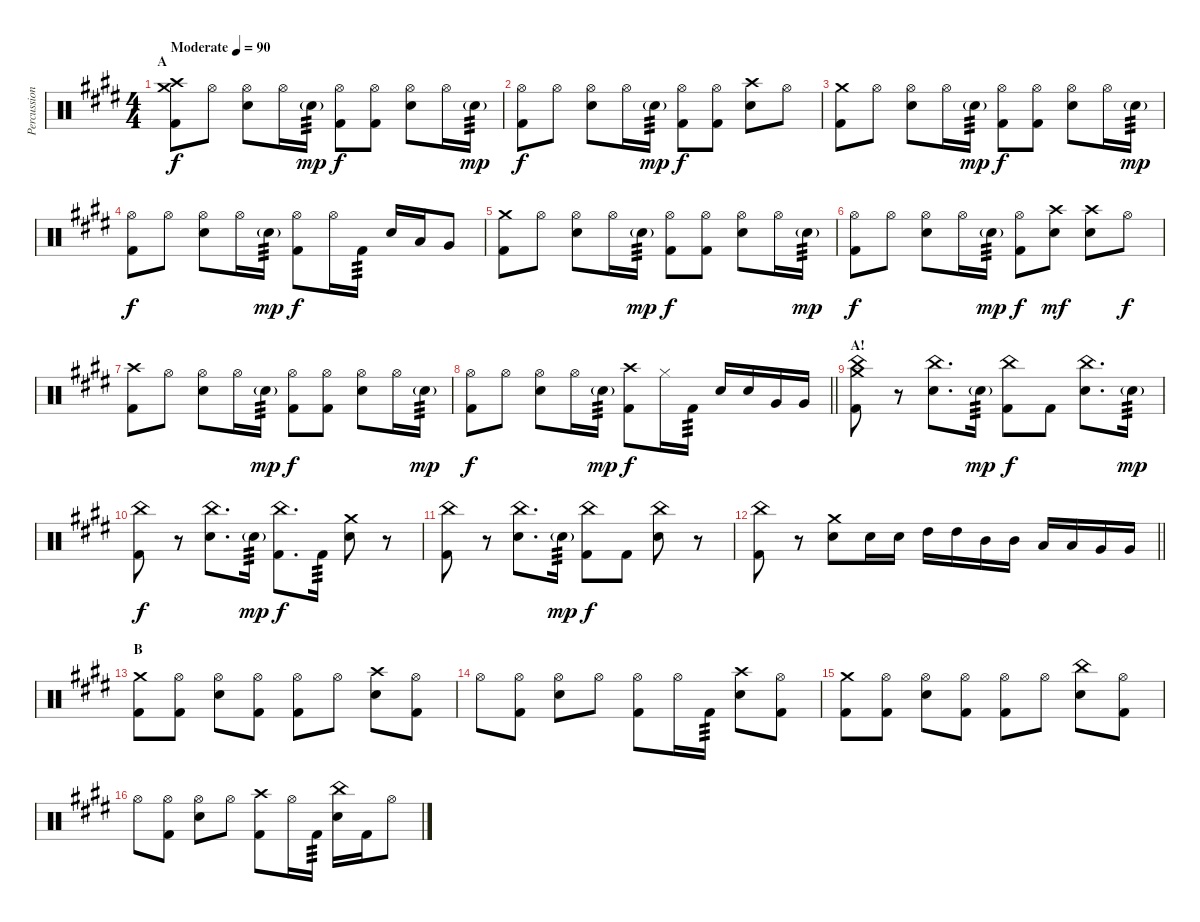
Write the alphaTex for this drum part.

\track ("Percussion" "Percussion") {instrument percussion}
\staff {score}
\articulation defaults
\ts (4 4)
\section ("" "A")
\tempo (90 "Moderate")
\clef neutral
\ks c#minor
("Crash medium (hit)" "Crash high (hit)" "Kick (hit) 2").8{dy f} "Hi-Hat (open)".8 ("Hi-Hat (open)" "Snare (hit) 2").8 "Hi-Hat (open)".16 "Snare (hit) 2"{g}.16{tp 3 dy mp} ("Hi-Hat (open)" "Kick (hit) 2").8{dy f} ("Hi-Hat (open)" "Kick (hit) 2").8 ("Hi-Hat (open)" "Snare (hit) 2").8 "Hi-Hat (open)".16 "Snare (hit) 2"{g}.16{tp 3 dy mp} |
("Hi-Hat (open)" "Kick (hit) 2").8{dy f} "Hi-Hat (open)".8 ("Hi-Hat (open)" "Snare (hit) 2").8 "Hi-Hat (open)".16 "Snare (hit) 2"{g}.16{tp 3 dy mp} ("Hi-Hat (open)" "Kick (hit) 2").8{dy f} ("Hi-Hat (open)" "Kick (hit) 2").8 ("Crash high (hit)" "Snare (hit) 2").8 "Hi-Hat (open)".8 |
("Crash medium (hit)" "Kick (hit) 2").8 "Hi-Hat (open)".8 ("Hi-Hat (open)" "Snare (hit) 2").8 "Hi-Hat (open)".16 "Snare (hit) 2"{g}.16{tp 3 dy mp} ("Hi-Hat (open)" "Kick (hit) 2").8{dy f} ("Hi-Hat (open)" "Kick (hit) 2").8 ("Hi-Hat (open)" "Snare (hit) 2").8 "Hi-Hat (open)".16 "Snare (hit) 2"{g}.16{tp 3 dy mp} |
("Hi-Hat (open)" "Kick (hit) 2").8{dy f} "Hi-Hat (open)".8 ("Hi-Hat (open)" "Snare (hit) 2").8 "Hi-Hat (open)".16 "Snare (hit) 2"{g}.16{tp 3 dy mp} ("Hi-Hat (open)" "Kick (hit) 2").8{dy f} "Hi-Hat (open)".16 "Kick (hit) 2".16{tp 3} "Snare (hit) 2".16 "Low Tom (hit)".16 "Very Low Tom (hit)".8 |
("Crash medium (hit)" "Kick (hit) 2").8 "Hi-Hat (open)".8 ("Hi-Hat (open)" "Snare (hit) 2").8 "Hi-Hat (open)".16 "Snare (hit) 2"{g}.16{tp 3 dy mp} ("Hi-Hat (open)" "Kick (hit) 2").8{dy f} ("Hi-Hat (open)" "Kick (hit) 2").8 ("Hi-Hat (open)" "Snare (hit) 2").8 "Hi-Hat (open)".16 "Snare (hit) 2"{g}.16{tp 3 dy mp} |
("Hi-Hat (open)" "Kick (hit) 2").8{dy f} "Hi-Hat (open)".8 ("Hi-Hat (open)" "Snare (hit) 2").8 "Hi-Hat (open)".16 "Snare (hit) 2"{g}.16{tp 3 dy mp} ("Hi-Hat (open)" "Kick (hit) 2").8{dy f} ("Crash high (hit)" "Snare (hit) 2").8{dy mf} ("Crash high (hit)" "Snare (hit) 2").8 "Hi-Hat (open)".8{dy f} |
("Crash high (hit)" "Kick (hit) 2").8 "Hi-Hat (open)".8 ("Hi-Hat (open)" "Snare (hit) 2").8 "Hi-Hat (open)".16 "Snare (hit) 2"{g}.16{tp 3 dy mp} ("Hi-Hat (open)" "Kick (hit) 2").8{dy f} ("Hi-Hat (open)" "Kick (hit) 2").8 ("Hi-Hat (open)" "Snare (hit) 2").8 "Hi-Hat (open)".16 "Snare (hit) 2"{g}.16{tp 3 dy mp} |
\barLineRight lightlight
("Hi-Hat (open)" "Kick (hit) 2").8{dy f} "Hi-Hat (open)".8 ("Hi-Hat (open)" "Snare (hit) 2").8 "Hi-Hat (open)".16 "Snare (hit) 2"{g}.16{tp 3 dy mp} ("Crash high (hit)" "Kick (hit) 2").8{dy f} "Hi-Hat (closed)".16 "Kick (hit) 2".16{tp 3} "Snare (hit) 2".16 "Snare (hit) 2".16 "Very Low Tom (hit)".16 "Very Low Tom (hit)".16 |
\section ("" "A!")
("China (hit)" "Crash medium (hit)" "Kick (hit) 2").8 r.8 ("China (hit)" "Snare (hit) 2").8{d} "Snare (hit) 2"{g}.16{tp 3 dy mp} ("China (hit)" "Kick (hit) 2").8{dy f} "Kick (hit) 2".8 ("China (hit)" "Snare (hit) 2").8{d} "Snare (hit) 2"{g}.16{tp 3 dy mp} |
("China (hit)" "Kick (hit) 2").8{dy f} r.8 ("China (hit)" "Snare (hit) 2").8{d} "Snare (hit) 2"{g}.16{tp 3 dy mp} ("China (hit)" "Kick (hit) 2").8{d dy f} "Kick (hit) 2".16{tp 3} ("Crash medium (hit)" "Snare (hit) 2").8 r.8 |
("China (hit)" "Kick (hit) 2").8 r.8 ("China (hit)" "Snare (hit) 2").8{d} "Snare (hit) 2"{g}.16{tp 3 dy mp} ("China (hit)" "Kick (hit) 2").8{dy f} "Kick (hit) 2".8 ("China (hit)" "Snare (hit) 2").8 r.8 |
\barLineRight lightlight
("China (hit)" "Kick (hit) 2").8 r.8 ("Crash medium (hit)" "Snare (hit) 2").8 "Snare (hit) 2".16 "Snare (hit) 2".16 "High Tom (hit)".16 "High Tom (hit)".16 "Mid Tom (hit)".16 "Mid Tom (hit)".16 "Low Tom (hit)".16 "Low Tom (hit)".16 "Very Low Tom (hit)".16 "Very Low Tom (hit)".16 |
\section ("" "B")
("Crash medium (hit)" "Kick (hit) 2").8 ("Hi-Hat (open)" "Kick (hit) 2").8 ("Hi-Hat (open)" "Snare (hit) 2").8 ("Hi-Hat (open)" "Kick (hit) 2").8 ("Hi-Hat (open)" "Kick (hit) 2").8 "Hi-Hat (open)".8 ("Crash high (hit)" "Snare (hit) 2").8 ("Hi-Hat (open)" "Kick (hit) 2").8 |
"Hi-Hat (open)".8 ("Hi-Hat (open)" "Kick (hit) 2").8 ("Hi-Hat (open)" "Snare (hit) 2").8 "Hi-Hat (open)".8 ("Hi-Hat (open)" "Kick (hit) 2").8 "Hi-Hat (open)".16 "Kick (hit) 2".16{tp 3} ("Crash high (hit)" "Snare (hit) 2").8 ("Hi-Hat (open)" "Kick (hit) 2").8 |
("Crash medium (hit)" "Kick (hit) 2").8 ("Hi-Hat (open)" "Kick (hit) 2").8 ("Hi-Hat (open)" "Snare (hit) 2").8 ("Hi-Hat (open)" "Kick (hit) 2").8 ("Hi-Hat (open)" "Kick (hit) 2").8 "Hi-Hat (open)".8 ("China (hit)" "Snare (hit) 2").8 ("Hi-Hat (open)" "Kick (hit) 2").8 |
"Hi-Hat (open)".8 ("Hi-Hat (open)" "Kick (hit) 2").8 ("Hi-Hat (open)" "Snare (hit) 2").8 "Hi-Hat (open)".8 ("Crash high (hit)" "Kick (hit) 2").8 "Hi-Hat (open)".16 "Kick (hit) 2".16{tp 3} ("China (hit)" "Snare (hit) 2").16 "Kick (hit) 2".16 "Hi-Hat (open)".8
